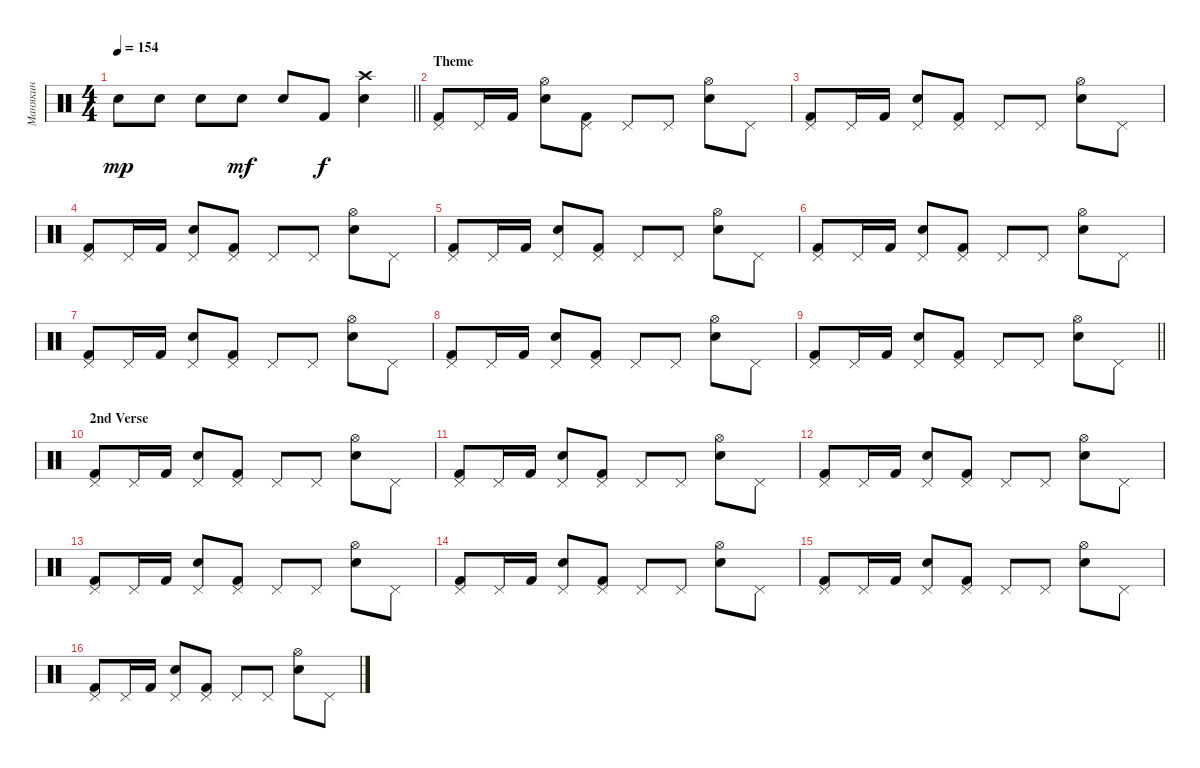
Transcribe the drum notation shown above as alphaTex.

\track ("Манякин" "Манякин") {instrument percussion}
\staff {score}
\articulation defaults
\ts (4 4)
\tempo 154
\clef neutral
\barLineRight lightlight
\ks c "Electric Snare (hit)".8{dy mp} "Electric Snare (hit)".8 "Electric Snare (hit)".8 "Electric Snare (hit)".8{dy mf} "Electric Snare (hit)".8 "Kick (hit) 2".8{dy f}
("Crash high (hit)" "Electric Snare (hit)").4 |
\section ("" "Theme")
("Pedal Hi-Hat (hit)" "Kick (hit) 2").8 "Pedal Hi-Hat (hit)".16 "Kick (hit) 2".16 ("Hi-Hat (open)" "Electric Snare (hit)").8 ("Pedal Hi-Hat (hit)" "Kick (hit) 2").8 "Pedal Hi-Hat (hit)".8 "Pedal Hi-Hat (hit)".8 ("Hi-Hat (open)" "Electric Snare (hit)").8 "Pedal Hi-Hat (hit)".8 |
("Pedal Hi-Hat (hit)" "Kick (hit) 2").8 "Pedal Hi-Hat (hit)".16 "Kick (hit) 2".16 ("Pedal Hi-Hat (hit)" "Electric Snare (hit)").8 ("Pedal Hi-Hat (hit)" "Kick (hit) 2").8 "Pedal Hi-Hat (hit)".8 "Pedal Hi-Hat (hit)".8 ("Hi-Hat (open)" "Electric Snare (hit)").8 "Pedal Hi-Hat (hit)".8 |
("Pedal Hi-Hat (hit)" "Kick (hit) 2").8 "Pedal Hi-Hat (hit)".16 "Kick (hit) 2".16 ("Pedal Hi-Hat (hit)" "Electric Snare (hit)").8 ("Pedal Hi-Hat (hit)" "Kick (hit) 2").8 "Pedal Hi-Hat (hit)".8 "Pedal Hi-Hat (hit)".8 ("Hi-Hat (open)" "Electric Snare (hit)").8 "Pedal Hi-Hat (hit)".8 |
("Pedal Hi-Hat (hit)" "Kick (hit) 2").8 "Pedal Hi-Hat (hit)".16 "Kick (hit) 2".16 ("Pedal Hi-Hat (hit)" "Electric Snare (hit)").8 ("Pedal Hi-Hat (hit)" "Kick (hit) 2").8 "Pedal Hi-Hat (hit)".8 "Pedal Hi-Hat (hit)".8 ("Hi-Hat (open)" "Electric Snare (hit)").8 "Pedal Hi-Hat (hit)".8 |
("Pedal Hi-Hat (hit)" "Kick (hit) 2").8 "Pedal Hi-Hat (hit)".16 "Kick (hit) 2".16 ("Pedal Hi-Hat (hit)" "Electric Snare (hit)").8 ("Pedal Hi-Hat (hit)" "Kick (hit) 2").8 "Pedal Hi-Hat (hit)".8 "Pedal Hi-Hat (hit)".8 ("Hi-Hat (open)" "Electric Snare (hit)").8 "Pedal Hi-Hat (hit)".8 |
("Pedal Hi-Hat (hit)" "Kick (hit) 2").8 "Pedal Hi-Hat (hit)".16 "Kick (hit) 2".16 ("Pedal Hi-Hat (hit)" "Electric Snare (hit)").8 ("Pedal Hi-Hat (hit)" "Kick (hit) 2").8 "Pedal Hi-Hat (hit)".8 "Pedal Hi-Hat (hit)".8 ("Hi-Hat (open)" "Electric Snare (hit)").8 "Pedal Hi-Hat (hit)".8 |
("Pedal Hi-Hat (hit)" "Kick (hit) 2").8 "Pedal Hi-Hat (hit)".16 "Kick (hit) 2".16 ("Pedal Hi-Hat (hit)" "Electric Snare (hit)").8 ("Pedal Hi-Hat (hit)" "Kick (hit) 2").8 "Pedal Hi-Hat (hit)".8 "Pedal Hi-Hat (hit)".8 ("Hi-Hat (open)" "Electric Snare (hit)").8 "Pedal Hi-Hat (hit)".8 |
\barLineRight lightlight
("Pedal Hi-Hat (hit)" "Kick (hit) 2").8 "Pedal Hi-Hat (hit)".16 "Kick (hit) 2".16 ("Pedal Hi-Hat (hit)" "Electric Snare (hit)").8 ("Pedal Hi-Hat (hit)" "Kick (hit) 2").8 "Pedal Hi-Hat (hit)".8 "Pedal Hi-Hat (hit)".8 ("Hi-Hat (open)" "Electric Snare (hit)").8 "Pedal Hi-Hat (hit)".8 |
\section ("" "2nd Verse")
("Pedal Hi-Hat (hit)" "Kick (hit) 2").8 "Pedal Hi-Hat (hit)".16 "Kick (hit) 2".16 ("Pedal Hi-Hat (hit)" "Electric Snare (hit)").8 ("Pedal Hi-Hat (hit)" "Kick (hit) 2").8 "Pedal Hi-Hat (hit)".8 "Pedal Hi-Hat (hit)".8 ("Hi-Hat (open)" "Electric Snare (hit)").8 "Pedal Hi-Hat (hit)".8 |
("Pedal Hi-Hat (hit)" "Kick (hit) 2").8 "Pedal Hi-Hat (hit)".16 "Kick (hit) 2".16 ("Pedal Hi-Hat (hit)" "Electric Snare (hit)").8 ("Pedal Hi-Hat (hit)" "Kick (hit) 2").8 "Pedal Hi-Hat (hit)".8 "Pedal Hi-Hat (hit)".8 ("Hi-Hat (open)" "Electric Snare (hit)").8 "Pedal Hi-Hat (hit)".8 |
("Pedal Hi-Hat (hit)" "Kick (hit) 2").8 "Pedal Hi-Hat (hit)".16 "Kick (hit) 2".16 ("Pedal Hi-Hat (hit)" "Electric Snare (hit)").8 ("Pedal Hi-Hat (hit)" "Kick (hit) 2").8 "Pedal Hi-Hat (hit)".8 "Pedal Hi-Hat (hit)".8 ("Hi-Hat (open)" "Electric Snare (hit)").8 "Pedal Hi-Hat (hit)".8 |
("Pedal Hi-Hat (hit)" "Kick (hit) 2").8 "Pedal Hi-Hat (hit)".16 "Kick (hit) 2".16 ("Pedal Hi-Hat (hit)" "Electric Snare (hit)").8 ("Pedal Hi-Hat (hit)" "Kick (hit) 2").8 "Pedal Hi-Hat (hit)".8 "Pedal Hi-Hat (hit)".8 ("Hi-Hat (open)" "Electric Snare (hit)").8 "Pedal Hi-Hat (hit)".8 |
("Pedal Hi-Hat (hit)" "Kick (hit) 2").8 "Pedal Hi-Hat (hit)".16 "Kick (hit) 2".16 ("Pedal Hi-Hat (hit)" "Electric Snare (hit)").8 ("Pedal Hi-Hat (hit)" "Kick (hit) 2").8 "Pedal Hi-Hat (hit)".8 "Pedal Hi-Hat (hit)".8 ("Hi-Hat (open)" "Electric Snare (hit)").8 "Pedal Hi-Hat (hit)".8 |
("Pedal Hi-Hat (hit)" "Kick (hit) 2").8 "Pedal Hi-Hat (hit)".16 "Kick (hit) 2".16 ("Pedal Hi-Hat (hit)" "Electric Snare (hit)").8 ("Pedal Hi-Hat (hit)" "Kick (hit) 2").8 "Pedal Hi-Hat (hit)".8 "Pedal Hi-Hat (hit)".8 ("Hi-Hat (open)" "Electric Snare (hit)").8 "Pedal Hi-Hat (hit)".8 |
("Pedal Hi-Hat (hit)" "Kick (hit) 2").8 "Pedal Hi-Hat (hit)".16 "Kick (hit) 2".16 ("Pedal Hi-Hat (hit)" "Electric Snare (hit)").8 ("Pedal Hi-Hat (hit)" "Kick (hit) 2").8 "Pedal Hi-Hat (hit)".8 "Pedal Hi-Hat (hit)".8 ("Hi-Hat (open)" "Electric Snare (hit)").8 "Pedal Hi-Hat (hit)".8
